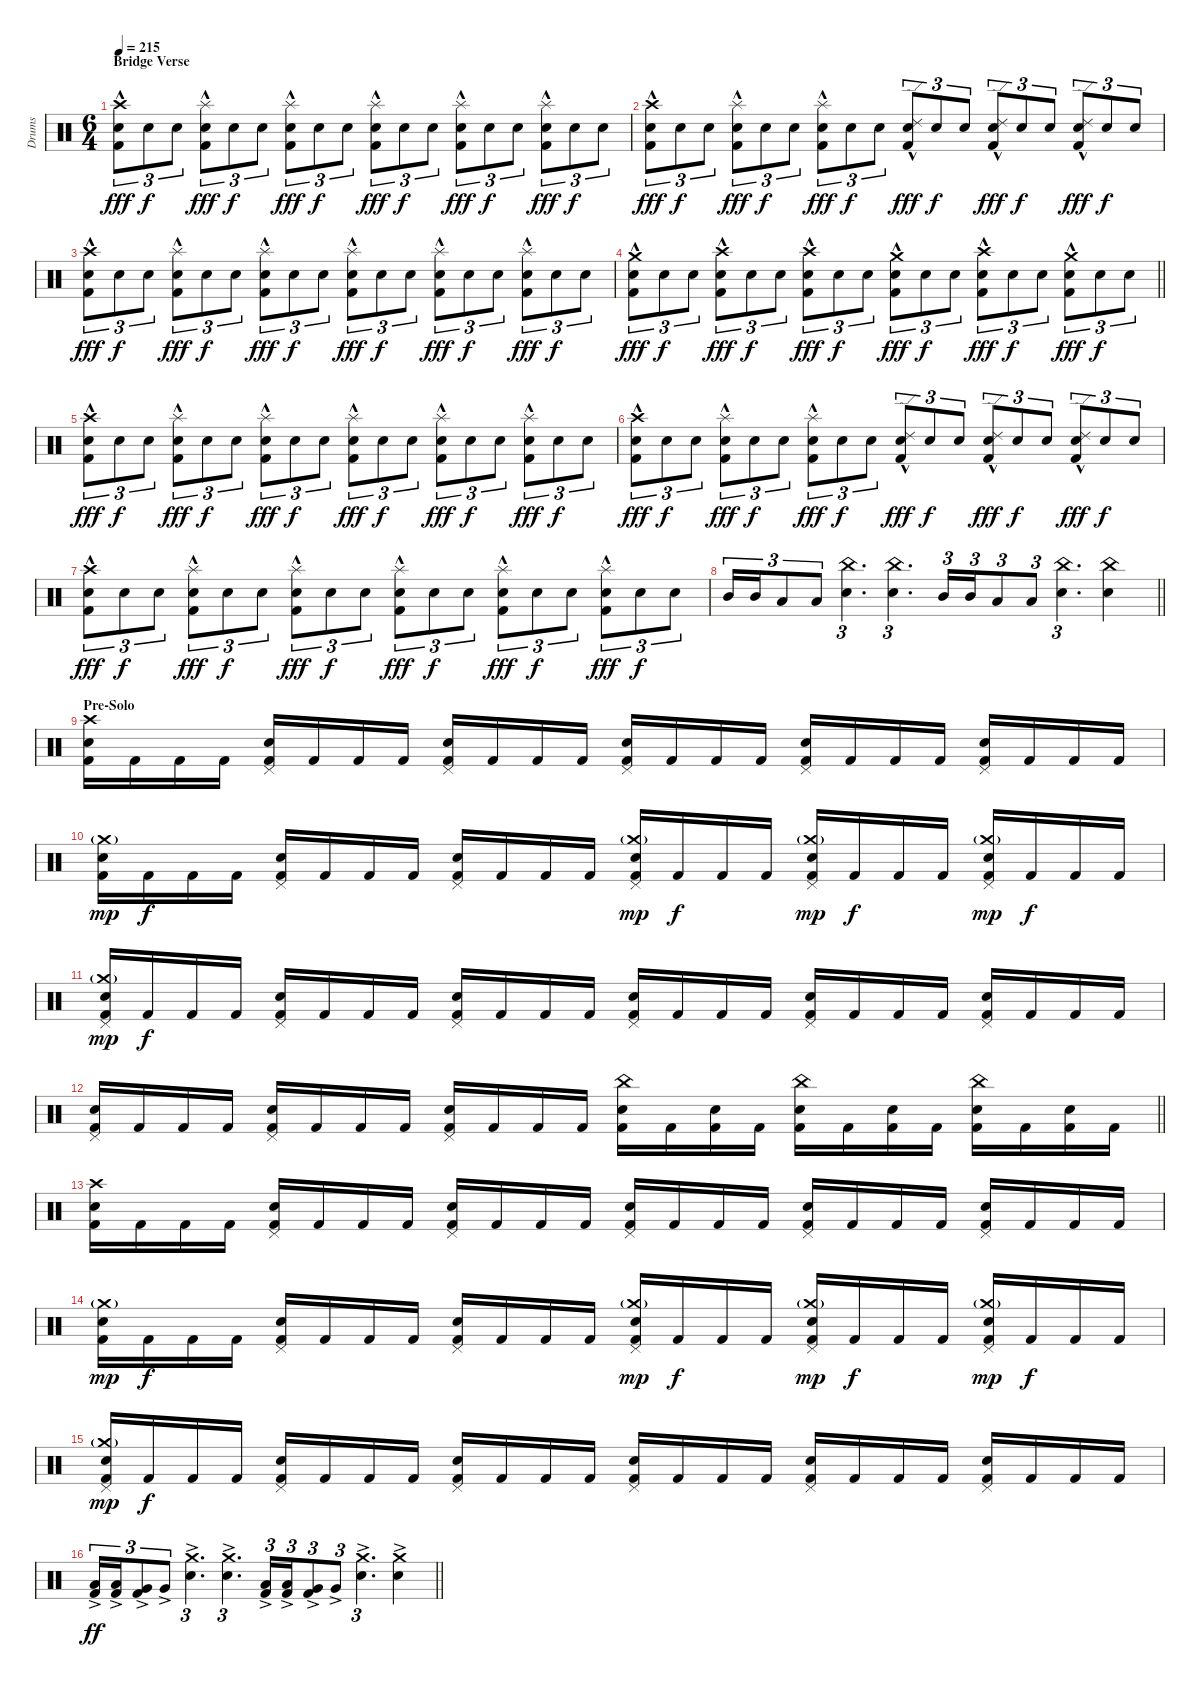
\track ("Drums" "Drums") {instrument percussion}
\staff {score}
\articulation defaults
\ts (6 4)
\section ("" "Bridge Verse")
\tempo 215
\clef neutral
\ks c
("Kick (hit) 2"{hac} "Snare (hit) 2" "Crash high (hit)").8{tu (3 2) dy fff} "Snare (hit) 2".8{tu (3 2) dy f} "Snare (hit) 2".8{tu (3 2)} ("Kick (hit) 2"{hac} "Snare (hit) 2" "Splash (hit)").8{tu (3 2) dy fff} "Snare (hit) 2".8{tu (3 2) dy f} "Snare (hit) 2".8{tu (3 2)} ("Kick (hit) 2"{hac} "Snare (hit) 2" "Splash (hit)").8{tu (3 2) dy fff} "Snare (hit) 2".8{tu (3 2) dy f} "Snare (hit) 2".8{tu (3 2)} ("Kick (hit) 2"{hac} "Snare (hit) 2" "Splash (hit)").8{tu (3 2) dy fff} "Snare (hit) 2".8{tu (3 2) dy f} "Snare (hit) 2".8{tu (3 2)} ("Kick (hit) 2"{hac} "Snare (hit) 2" "Splash (hit)").8{tu (3 2) dy fff} "Snare (hit) 2".8{tu (3 2) dy f} "Snare (hit) 2".8{tu (3 2)} ("Kick (hit) 2"{hac} "Snare (hit) 2" "Splash (hit)").8{tu (3 2) dy fff} "Snare (hit) 2".8{tu (3 2) dy f} "Snare (hit) 2".8{tu (3 2)} |
("Kick (hit) 2"{hac} "Snare (hit) 2" "Crash high (hit)").8{tu (3 2) dy fff} "Snare (hit) 2".8{tu (3 2) dy f} "Snare (hit) 2".8{tu (3 2)} ("Kick (hit) 2"{hac} "Snare (hit) 2" "Splash (hit)").8{tu (3 2) dy fff} "Snare (hit) 2".8{tu (3 2) dy f} "Snare (hit) 2".8{tu (3 2)} ("Kick (hit) 2"{hac} "Snare (hit) 2" "Splash (hit)").8{tu (3 2) dy fff} "Snare (hit) 2".8{tu (3 2) dy f} "Snare (hit) 2".8{tu (3 2)} ("Kick (hit) 2"{hac} "Snare (hit) 2" "Ride (edge) 2").8{tu (3 2) dy fff} "Snare (hit) 2".8{tu (3 2) dy f} "Snare (hit) 2".8{tu (3 2)} ("Kick (hit) 2"{hac} "Snare (hit) 2" "Ride (edge) 2").8{tu (3 2) dy fff} "Snare (hit) 2".8{tu (3 2) dy f} "Snare (hit) 2".8{tu (3 2)} ("Kick (hit) 2"{hac} "Snare (hit) 2" "Ride (edge) 2").8{tu (3 2) dy fff} "Snare (hit) 2".8{tu (3 2) dy f} "Snare (hit) 2".8{tu (3 2)} |
("Kick (hit) 2"{hac} "Snare (hit) 2" "Crash high (hit)").8{tu (3 2) dy fff} "Snare (hit) 2".8{tu (3 2) dy f} "Snare (hit) 2".8{tu (3 2)} ("Kick (hit) 2"{hac} "Snare (hit) 2" "Splash (hit)").8{tu (3 2) dy fff} "Snare (hit) 2".8{tu (3 2) dy f} "Snare (hit) 2".8{tu (3 2)} ("Kick (hit) 2"{hac} "Snare (hit) 2" "Splash (hit)").8{tu (3 2) dy fff} "Snare (hit) 2".8{tu (3 2) dy f} "Snare (hit) 2".8{tu (3 2)} ("Kick (hit) 2"{hac} "Snare (hit) 2" "Splash (hit)").8{tu (3 2) dy fff} "Snare (hit) 2".8{tu (3 2) dy f} "Snare (hit) 2".8{tu (3 2)} ("Kick (hit) 2"{hac} "Snare (hit) 2" "Splash (hit)").8{tu (3 2) dy fff} "Snare (hit) 2".8{tu (3 2) dy f} "Snare (hit) 2".8{tu (3 2)} ("Kick (hit) 2"{hac} "Snare (hit) 2" "Splash (hit)").8{tu (3 2) dy fff} "Snare (hit) 2".8{tu (3 2) dy f} "Snare (hit) 2".8{tu (3 2)} |
\barLineRight lightlight
("Kick (hit) 2"{hac} "Snare (hit) 2" "Crash medium (hit)").8{tu (3 2) dy fff} "Snare (hit) 2".8{tu (3 2) dy f} "Snare (hit) 2".8{tu (3 2)} ("Kick (hit) 2"{hac} "Snare (hit) 2" "Crash high (hit)").8{tu (3 2) dy fff} "Snare (hit) 2".8{tu (3 2) dy f} "Snare (hit) 2".8{tu (3 2)} ("Kick (hit) 2"{hac} "Snare (hit) 2" "Crash high (hit)").8{tu (3 2) dy fff} "Snare (hit) 2".8{tu (3 2) dy f} "Snare (hit) 2".8{tu (3 2)} ("Kick (hit) 2"{hac} "Snare (hit) 2" "Crash medium (hit)").8{tu (3 2) dy fff} "Snare (hit) 2".8{tu (3 2) dy f} "Snare (hit) 2".8{tu (3 2)} ("Kick (hit) 2"{hac} "Snare (hit) 2" "Crash high (hit)").8{tu (3 2) dy fff} "Snare (hit) 2".8{tu (3 2) dy f} "Snare (hit) 2".8{tu (3 2)} ("Kick (hit) 2"{hac} "Snare (hit) 2" "Crash medium (hit)").8{tu (3 2) dy fff} "Snare (hit) 2".8{tu (3 2) dy f} "Snare (hit) 2".8{tu (3 2)} |
\section ("" "")
("Kick (hit) 2"{hac} "Snare (hit) 2" "Crash high (hit)").8{tu (3 2) dy fff} "Snare (hit) 2".8{tu (3 2) dy f} "Snare (hit) 2".8{tu (3 2)} ("Kick (hit) 2"{hac} "Snare (hit) 2" "Splash (hit)").8{tu (3 2) dy fff} "Snare (hit) 2".8{tu (3 2) dy f} "Snare (hit) 2".8{tu (3 2)} ("Kick (hit) 2"{hac} "Snare (hit) 2" "Splash (hit)").8{tu (3 2) dy fff} "Snare (hit) 2".8{tu (3 2) dy f} "Snare (hit) 2".8{tu (3 2)} ("Kick (hit) 2"{hac} "Snare (hit) 2" "Splash (hit)").8{tu (3 2) dy fff} "Snare (hit) 2".8{tu (3 2) dy f} "Snare (hit) 2".8{tu (3 2)} ("Kick (hit) 2"{hac} "Snare (hit) 2" "Splash (hit)").8{tu (3 2) dy fff} "Snare (hit) 2".8{tu (3 2) dy f} "Snare (hit) 2".8{tu (3 2)} ("Kick (hit) 2"{hac} "Snare (hit) 2" "Splash (hit)").8{tu (3 2) dy fff} "Snare (hit) 2".8{tu (3 2) dy f} "Snare (hit) 2".8{tu (3 2)} |
("Kick (hit) 2"{hac} "Snare (hit) 2" "Crash high (hit)").8{tu (3 2) dy fff} "Snare (hit) 2".8{tu (3 2) dy f} "Snare (hit) 2".8{tu (3 2)} ("Kick (hit) 2"{hac} "Snare (hit) 2" "Splash (hit)").8{tu (3 2) dy fff} "Snare (hit) 2".8{tu (3 2) dy f} "Snare (hit) 2".8{tu (3 2)} ("Kick (hit) 2"{hac} "Snare (hit) 2" "Splash (hit)").8{tu (3 2) dy fff} "Snare (hit) 2".8{tu (3 2) dy f} "Snare (hit) 2".8{tu (3 2)} ("Kick (hit) 2"{hac} "Snare (hit) 2" "Ride (edge) 2").8{tu (3 2) dy fff} "Snare (hit) 2".8{tu (3 2) dy f} "Snare (hit) 2".8{tu (3 2)} ("Kick (hit) 2"{hac} "Snare (hit) 2" "Ride (edge) 2").8{tu (3 2) dy fff} "Snare (hit) 2".8{tu (3 2) dy f} "Snare (hit) 2".8{tu (3 2)} ("Kick (hit) 2"{hac} "Snare (hit) 2" "Ride (edge) 2").8{tu (3 2) dy fff} "Snare (hit) 2".8{tu (3 2) dy f} "Snare (hit) 2".8{tu (3 2)} |
("Kick (hit) 2"{hac} "Snare (hit) 2" "Crash high (hit)").8{tu (3 2) dy fff} "Snare (hit) 2".8{tu (3 2) dy f} "Snare (hit) 2".8{tu (3 2)} ("Kick (hit) 2"{hac} "Snare (hit) 2" "Splash (hit)").8{tu (3 2) dy fff} "Snare (hit) 2".8{tu (3 2) dy f} "Snare (hit) 2".8{tu (3 2)} ("Kick (hit) 2"{hac} "Snare (hit) 2" "Splash (hit)").8{tu (3 2) dy fff} "Snare (hit) 2".8{tu (3 2) dy f} "Snare (hit) 2".8{tu (3 2)} ("Kick (hit) 2"{hac} "Snare (hit) 2" "Splash (hit)").8{tu (3 2) dy fff} "Snare (hit) 2".8{tu (3 2) dy f} "Snare (hit) 2".8{tu (3 2)} ("Kick (hit) 2"{hac} "Snare (hit) 2" "Splash (hit)").8{tu (3 2) dy fff} "Snare (hit) 2".8{tu (3 2) dy f} "Snare (hit) 2".8{tu (3 2)} ("Kick (hit) 2"{hac} "Snare (hit) 2" "Splash (hit)").8{tu (3 2) dy fff} "Snare (hit) 2".8{tu (3 2) dy f} "Snare (hit) 2".8{tu (3 2)} |
\barLineRight lightlight "Mid Tom (hit)".16{tu (3 2)} "Mid Tom (hit)".16{tu (3 2)} "Low Tom (hit)".8{tu (3 2)} "Low Tom (hit)".8{tu (3 2)}
("Snare (hit) 2" "China (hit)").4{d tu (3 2)} ("Snare (hit) 2" "China (hit)").4{d tu (3 2)} "Mid Tom (hit)".16{tu (3 2)} "Mid Tom (hit)".16{tu (3 2)} "Low Tom (hit)".8{tu (3 2)} "Low Tom (hit)".8{tu (3 2)} ("Snare (hit) 2" "China (hit)").4{d tu (3 2)} ("Snare (hit) 2" "China (hit)").4 |
\section ("" "Pre-Solo")
("Kick (hit) 2" "Snare (hit) 2" "Crash high (hit)").16 "Kick (hit) 2".16 "Kick (hit) 2".16 "Kick (hit) 2".16 ("Kick (hit) 2" "Snare (hit) 2" "Pedal Hi-Hat (hit)").16 "Kick (hit) 2".16 "Kick (hit) 2".16 "Kick (hit) 2".16 ("Kick (hit) 2" "Snare (hit) 2" "Pedal Hi-Hat (hit)").16 "Kick (hit) 2".16 "Kick (hit) 2".16 "Kick (hit) 2".16 ("Kick (hit) 2" "Snare (hit) 2" "Pedal Hi-Hat (hit)").16 "Kick (hit) 2".16 "Kick (hit) 2".16 "Kick (hit) 2".16 ("Kick (hit) 2" "Snare (hit) 2" "Pedal Hi-Hat (hit)").16 "Kick (hit) 2".16 "Kick (hit) 2".16 "Kick (hit) 2".16 ("Kick (hit) 2" "Snare (hit) 2" "Pedal Hi-Hat (hit)").16 "Kick (hit) 2".16 "Kick (hit) 2".16 "Kick (hit) 2".16 |
("Kick (hit) 2" "Snare (hit) 2" "Crash medium (hit)"{g}).16{dy mp} "Kick (hit) 2".16{dy f} "Kick (hit) 2".16 "Kick (hit) 2".16 ("Kick (hit) 2" "Snare (hit) 2" "Pedal Hi-Hat (hit)").16 "Kick (hit) 2".16 "Kick (hit) 2".16 "Kick (hit) 2".16 ("Kick (hit) 2" "Snare (hit) 2" "Pedal Hi-Hat (hit)").16 "Kick (hit) 2".16 "Kick (hit) 2".16 "Kick (hit) 2".16 ("Kick (hit) 2" "Snare (hit) 2" "Pedal Hi-Hat (hit)" "Crash medium (hit)"{g}).16{dy mp} "Kick (hit) 2".16{dy f} "Kick (hit) 2".16 "Kick (hit) 2".16 ("Kick (hit) 2" "Snare (hit) 2" "Pedal Hi-Hat (hit)" "Crash medium (hit)"{g}).16{dy mp} "Kick (hit) 2".16{dy f} "Kick (hit) 2".16 "Kick (hit) 2".16 ("Kick (hit) 2" "Snare (hit) 2" "Pedal Hi-Hat (hit)" "Crash medium (hit)"{g}).16{dy mp} "Kick (hit) 2".16{dy f} "Kick (hit) 2".16 "Kick (hit) 2".16 |
("Kick (hit) 2" "Snare (hit) 2" "Pedal Hi-Hat (hit)" "Crash medium (hit)"{g}).16{dy mp} "Kick (hit) 2".16{dy f} "Kick (hit) 2".16 "Kick (hit) 2".16 ("Kick (hit) 2" "Snare (hit) 2" "Pedal Hi-Hat (hit)").16 "Kick (hit) 2".16 "Kick (hit) 2".16 "Kick (hit) 2".16 ("Kick (hit) 2" "Snare (hit) 2" "Pedal Hi-Hat (hit)").16 "Kick (hit) 2".16 "Kick (hit) 2".16 "Kick (hit) 2".16 ("Kick (hit) 2" "Snare (hit) 2" "Pedal Hi-Hat (hit)").16 "Kick (hit) 2".16 "Kick (hit) 2".16 "Kick (hit) 2".16 ("Kick (hit) 2" "Snare (hit) 2" "Pedal Hi-Hat (hit)").16 "Kick (hit) 2".16 "Kick (hit) 2".16 "Kick (hit) 2".16 ("Kick (hit) 2" "Snare (hit) 2" "Pedal Hi-Hat (hit)").16 "Kick (hit) 2".16 "Kick (hit) 2".16 "Kick (hit) 2".16 |
\barLineRight lightlight
("Kick (hit) 2" "Snare (hit) 2" "Pedal Hi-Hat (hit)").16 "Kick (hit) 2".16 "Kick (hit) 2".16 "Kick (hit) 2".16 ("Kick (hit) 2" "Snare (hit) 2" "Pedal Hi-Hat (hit)").16 "Kick (hit) 2".16 "Kick (hit) 2".16 "Kick (hit) 2".16 ("Kick (hit) 2" "Snare (hit) 2" "Pedal Hi-Hat (hit)").16 "Kick (hit) 2".16 "Kick (hit) 2".16 "Kick (hit) 2".16 ("Kick (hit) 2" "Snare (hit) 2" "China (hit)").16 "Kick (hit) 2".16 ("Kick (hit) 2" "Snare (hit) 2").16 "Kick (hit) 2".16 ("Kick (hit) 2" "Snare (hit) 2" "China (hit)").16 "Kick (hit) 2".16 ("Kick (hit) 2" "Snare (hit) 2").16 "Kick (hit) 2".16 ("Kick (hit) 2" "Snare (hit) 2" "China (hit)").16 "Kick (hit) 2".16 ("Kick (hit) 2" "Snare (hit) 2").16 "Kick (hit) 2".16 |
\section ("" "")
("Kick (hit) 2" "Snare (hit) 2" "Crash high (hit)").16 "Kick (hit) 2".16 "Kick (hit) 2".16 "Kick (hit) 2".16 ("Kick (hit) 2" "Snare (hit) 2" "Pedal Hi-Hat (hit)").16 "Kick (hit) 2".16 "Kick (hit) 2".16 "Kick (hit) 2".16 ("Kick (hit) 2" "Snare (hit) 2" "Pedal Hi-Hat (hit)").16 "Kick (hit) 2".16 "Kick (hit) 2".16 "Kick (hit) 2".16 ("Kick (hit) 2" "Snare (hit) 2" "Pedal Hi-Hat (hit)").16 "Kick (hit) 2".16 "Kick (hit) 2".16 "Kick (hit) 2".16 ("Kick (hit) 2" "Snare (hit) 2" "Pedal Hi-Hat (hit)").16 "Kick (hit) 2".16 "Kick (hit) 2".16 "Kick (hit) 2".16 ("Kick (hit) 2" "Snare (hit) 2" "Pedal Hi-Hat (hit)").16 "Kick (hit) 2".16 "Kick (hit) 2".16 "Kick (hit) 2".16 |
("Kick (hit) 2" "Snare (hit) 2" "Crash medium (hit)"{g}).16{dy mp} "Kick (hit) 2".16{dy f} "Kick (hit) 2".16 "Kick (hit) 2".16 ("Kick (hit) 2" "Snare (hit) 2" "Pedal Hi-Hat (hit)").16 "Kick (hit) 2".16 "Kick (hit) 2".16 "Kick (hit) 2".16 ("Kick (hit) 2" "Snare (hit) 2" "Pedal Hi-Hat (hit)").16 "Kick (hit) 2".16 "Kick (hit) 2".16 "Kick (hit) 2".16 ("Kick (hit) 2" "Snare (hit) 2" "Pedal Hi-Hat (hit)" "Crash medium (hit)"{g}).16{dy mp} "Kick (hit) 2".16{dy f} "Kick (hit) 2".16 "Kick (hit) 2".16 ("Kick (hit) 2" "Snare (hit) 2" "Pedal Hi-Hat (hit)" "Crash medium (hit)"{g}).16{dy mp} "Kick (hit) 2".16{dy f} "Kick (hit) 2".16 "Kick (hit) 2".16 ("Kick (hit) 2" "Snare (hit) 2" "Pedal Hi-Hat (hit)" "Crash medium (hit)"{g}).16{dy mp} "Kick (hit) 2".16{dy f} "Kick (hit) 2".16 "Kick (hit) 2".16 |
("Kick (hit) 2" "Snare (hit) 2" "Pedal Hi-Hat (hit)" "Crash medium (hit)"{g}).16{dy mp} "Kick (hit) 2".16{dy f} "Kick (hit) 2".16 "Kick (hit) 2".16 ("Kick (hit) 2" "Snare (hit) 2" "Pedal Hi-Hat (hit)").16 "Kick (hit) 2".16 "Kick (hit) 2".16 "Kick (hit) 2".16 ("Kick (hit) 2" "Snare (hit) 2" "Pedal Hi-Hat (hit)").16 "Kick (hit) 2".16 "Kick (hit) 2".16 "Kick (hit) 2".16 ("Kick (hit) 2" "Snare (hit) 2" "Pedal Hi-Hat (hit)").16 "Kick (hit) 2".16 "Kick (hit) 2".16 "Kick (hit) 2".16 ("Kick (hit) 2" "Snare (hit) 2" "Pedal Hi-Hat (hit)").16 "Kick (hit) 2".16 "Kick (hit) 2".16 "Kick (hit) 2".16 ("Kick (hit) 2" "Snare (hit) 2" "Pedal Hi-Hat (hit)").16 "Kick (hit) 2".16 "Kick (hit) 2".16 "Kick (hit) 2".16 |
\barLineRight lightlight
("Kick (hit) 2" "Low Tom (hit)"{ac}).16{tu (3 2) dy ff} ("Kick (hit) 2" "Low Tom (hit)"{ac}).16{tu (3 2)} ("Kick (hit) 2" "Very Low Tom (hit)"{ac}).8{tu (3 2)} "Very Low Tom (hit)"{ac}.8{tu (3 2)} ("Snare (hit) 2"{ac} "Crash medium (hit)").4{d tu (3 2)} ("Snare (hit) 2"{ac} "Crash medium (hit)").4{d tu (3 2)} ("Kick (hit) 2" "Low Tom (hit)"{ac}).16{tu (3 2)} ("Kick (hit) 2" "Low Tom (hit)"{ac}).16{tu (3 2)} ("Kick (hit) 2" "Very Low Tom (hit)"{ac}).8{tu (3 2)} "Very Low Tom (hit)"{ac}.8{tu (3 2)} ("Snare (hit) 2"{ac} "Crash medium (hit)").4{d tu (3 2)} ("Snare (hit) 2"{ac} "Crash medium (hit)").4
